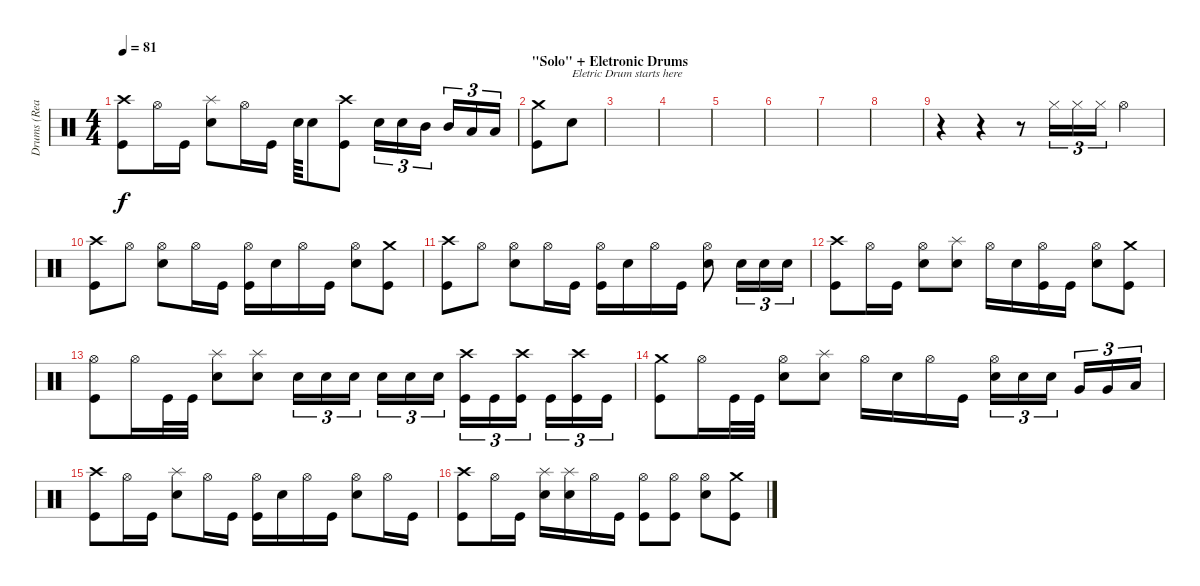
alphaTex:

\track ("Drums (Real)" "Drums (Rea") {instrument percussion}
\staff {score}
\articulation defaults
\ts (4 4)
\tempo 81
\clef neutral
\ks c
("Crash high (hit)" "Kick (hit)").8{dy f} "Hi-Hat (open)".16 "Kick (hit)".16 ("Splash (hit)" "Snare (hit) 2").8 "Hi-Hat (open)".16 "Kick (hit)".16 "Snare (hit) 2".64 "Snare (hit) 2".8 ("Crash high (hit)" "Kick (hit)").8 "Snare (hit) 2".16{tu (3 2)} "Snare (hit) 2".16{tu (3 2)} "Mid Tom (hit)".16{tu (3 2)} "Mid Tom (hit)".16{tu (3 2)} "Low Tom (hit)".16{tu (3 2)} "Low Tom (hit)".16{tu (3 2)} |
\section ("" "\"Solo\" + Eletronic Drums")
("Crash medium (hit)" "Kick (hit)").8 "Snare (hit)".8{txt "Eletric Drum starts here"} |
|
|
|
|
|
|
r.4 r.4 r.8 "Hi-Hat (closed)".16{tu (3 2)} "Hi-Hat (closed)".16{tu (3 2)} "Hi-Hat (closed)".16{tu (3 2)} "Hi-Hat (open)".4 |
("Crash high (hit)" "Kick (hit)").8 "Hi-Hat (open)".8 ("Hi-Hat (open)" "Snare (hit) 2").8 "Hi-Hat (open)".16 "Kick (hit)".16 ("Hi-Hat (open)" "Kick (hit)").16 "Snare (hit) 2".16 "Hi-Hat (open)".16 "Kick (hit)".16 ("Hi-Hat (open)" "Snare (hit) 2").8 ("Crash medium (hit)" "Kick (hit)").8 |
("Crash high (hit)" "Kick (hit)").8 "Hi-Hat (open)".8 ("Hi-Hat (open)" "Snare (hit) 2").8 "Hi-Hat (open)".16 "Kick (hit)".16 ("Hi-Hat (open)" "Kick (hit)").16 "Snare (hit) 2".16 "Hi-Hat (open)".16 "Kick (hit)".16 ("Hi-Hat (open)" "Snare (hit) 2").8 "Snare (hit) 2".16{tu (3 2)} "Snare (hit) 2".16{tu (3 2)} "Snare (hit) 2".16{tu (3 2)} |
("Crash high (hit)" "Kick (hit)").8 "Hi-Hat (open)".16 "Kick (hit)".16 ("Hi-Hat (open)" "Snare (hit) 2").8 ("Splash (hit)" "Snare (hit) 2").8 "Hi-Hat (open)".16 "Snare (hit) 2".16 ("Hi-Hat (open)" "Kick (hit)").16 "Kick (hit)".16 ("Hi-Hat (open)" "Snare (hit) 2").8 ("Crash medium (hit)" "Kick (hit)").8 |
("Hi-Hat (open)" "Kick (hit)").8 "Hi-Hat (open)".16 "Kick (hit)".32 "Kick (hit)".32 ("Splash (hit)" "Snare (hit) 2").8 ("Splash (hit)" "Snare (hit) 2").8 "Snare (hit) 2".16{tu (3 2)} "Snare (hit) 2".16{tu (3 2)} "Snare (hit) 2".16{tu (3 2)} "Snare (hit) 2".16{tu (3 2)} "Snare (hit) 2".16{tu (3 2)} "Snare (hit) 2".16{tu (3 2)} ("Crash high (hit)" "Kick (hit)").16{tu (3 2)} "Kick (hit)".16{tu (3 2)} ("Crash high (hit)" "Kick (hit)").16{tu (3 2)} "Kick (hit)".16{tu (3 2)} ("Crash high (hit)" "Kick (hit)").16{tu (3 2)} "Kick (hit)".16{tu (3 2)} |
("Crash medium (hit)" "Kick (hit)").8 "Hi-Hat (open)".16 "Kick (hit)".32 "Kick (hit)".32 ("Hi-Hat (open)" "Snare (hit) 2").8 ("Splash (hit)" "Snare (hit) 2").8 "Hi-Hat (open)".16 "Snare (hit) 2".16 "Hi-Hat (open)".16 "Kick (hit)".16 ("Hi-Hat (open)" "Snare (hit) 2").16{tu (3 2)} "Snare (hit) 2".16{tu (3 2)} "Snare (hit) 2".16{tu (3 2)} "Very Low Tom (hit)".16{tu (3 2)} "Very Low Tom (hit)".16{tu (3 2)} "Low Floor Tom (hit)".16{tu (3 2)} |
("Crash high (hit)" "Kick (hit)").8 "Hi-Hat (open)".16 "Kick (hit)".16 ("Splash (hit)" "Snare (hit) 2").8 "Hi-Hat (open)".16 "Kick (hit)".16 ("Hi-Hat (open)" "Kick (hit)").16 "Snare (hit) 2".16 "Hi-Hat (open)".16 "Kick (hit)".16 ("Hi-Hat (open)" "Snare (hit) 2").8 "Hi-Hat (open)".16 "Kick (hit)".16 |
("Crash high (hit)" "Kick (hit)").8 "Hi-Hat (open)".16 "Kick (hit)".16 ("Splash (hit)" "Snare (hit) 2").16 ("Splash (hit)" "Snare (hit) 2").16 "Hi-Hat (open)".16 "Kick (hit)".16 ("Hi-Hat (open)" "Kick (hit)").8 ("Hi-Hat (open)" "Kick (hit)").8 ("Hi-Hat (open)" "Snare (hit) 2").8 ("Crash medium (hit)" "Kick (hit)").8
